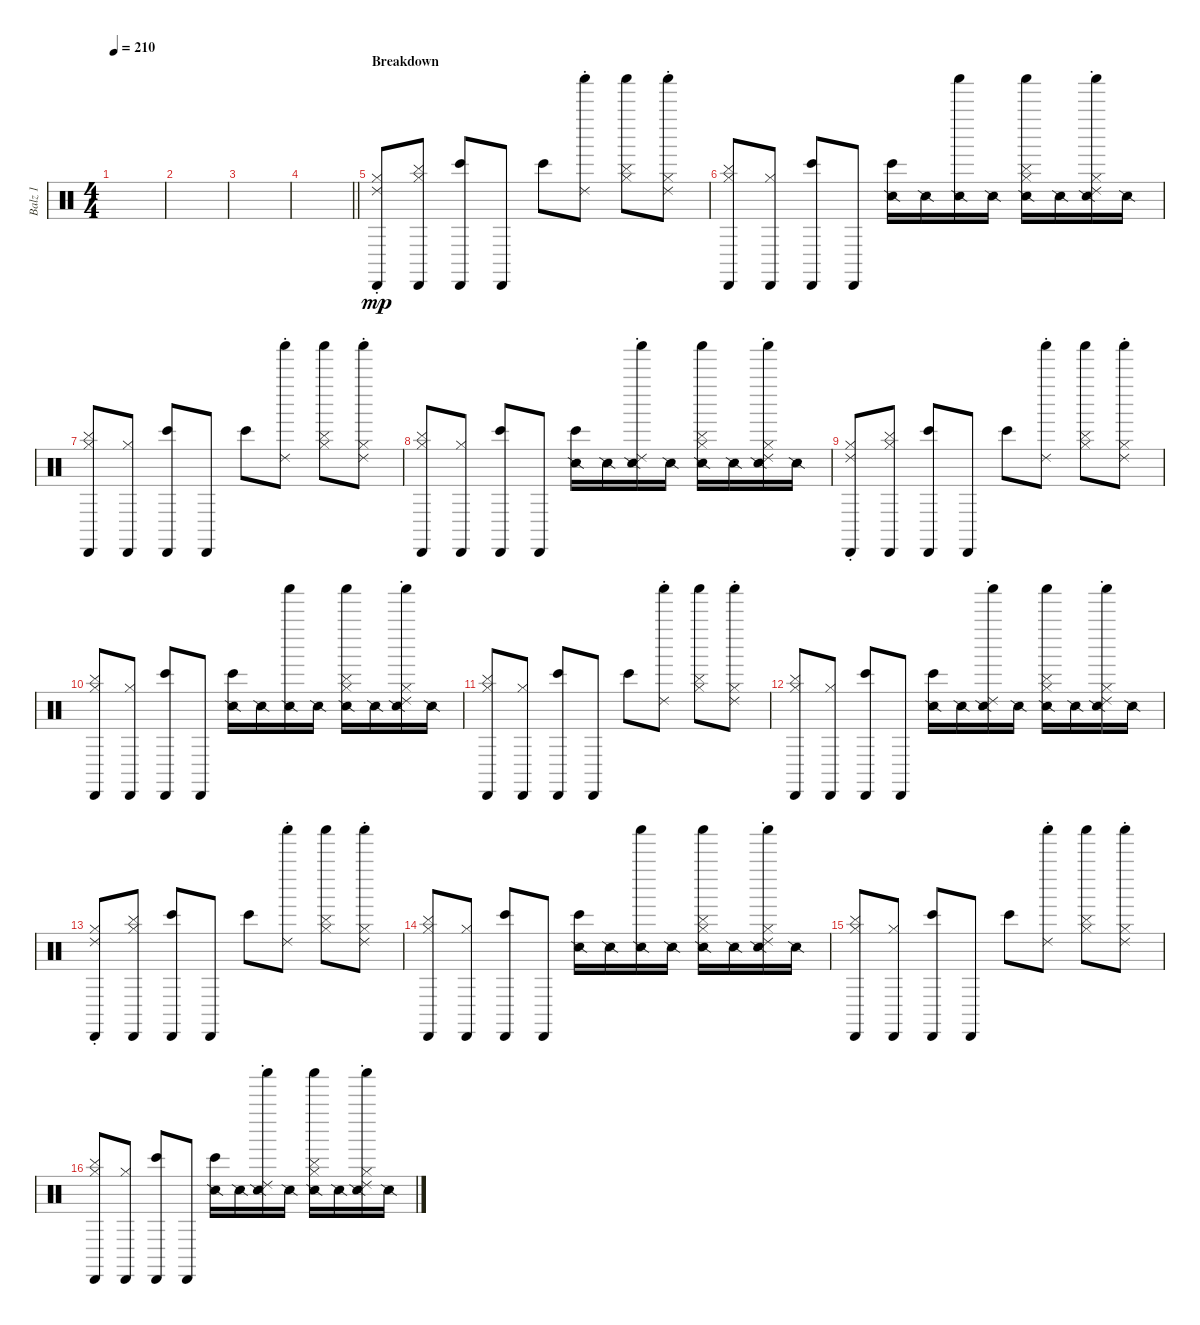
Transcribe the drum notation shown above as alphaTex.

\track ("Balz 1" "Balz 1") {instrument percussion}
\staff {score}
\articulation defaults
\ts (4 4)
\tempo 210
\clef neutral
\ks c
|
|
|
\barLineRight lightlight
|
\section ("" "Breakdown")
("Ride (choke) 2" "Hi-Hat (closed)" "Cabasa (hit)").8{dy mp} ("Cymbal (hit)" "Hi-Hat (closed)" "Cabasa (hit)").8 ("Bongo High (hit)" "Cabasa (hit)").8 "Cabasa (hit)".8 "Bongo High (hit)".8 ("Ride (choke) 2" "Shaker (hit)").8 ("Cymbal (hit)" "Shaker (hit)" "Hi-Hat (closed)").8 ("Ride (choke) 2" "Shaker (hit)" "Hi-Hat (closed)").8 |
("Cymbal (hit)" "Hi-Hat (closed)" "Cabasa (hit)").8 ("Hi-Hat (closed)" "Cabasa (hit)").8 ("Bongo High (hit)" "Cabasa (hit)").8 "Cabasa (hit)".8 ("Bongo High (hit)" "Snare (side stick) 2").16 "Snare (side stick) 2".16 ("Shaker (hit)" "Snare (side stick) 2").16 "Snare (side stick) 2".16 ("Cymbal (hit)" "Shaker (hit)" "Hi-Hat (closed)" "Snare (side stick) 2").16 "Snare (side stick) 2".16 ("Ride (choke) 2" "Shaker (hit)" "Hi-Hat (closed)" "Snare (side stick) 2").16 "Snare (side stick) 2".16 |
("Cymbal (hit)" "Hi-Hat (closed)" "Cabasa (hit)").8 ("Hi-Hat (closed)" "Cabasa (hit)").8 ("Bongo High (hit)" "Cabasa (hit)").8 "Cabasa (hit)".8 "Bongo High (hit)".8 ("Ride (choke) 2" "Shaker (hit)").8 ("Cymbal (hit)" "Shaker (hit)" "Hi-Hat (closed)").8 ("Ride (choke) 2" "Shaker (hit)" "Hi-Hat (closed)").8 |
("Cymbal (hit)" "Hi-Hat (closed)" "Cabasa (hit)").8 ("Hi-Hat (closed)" "Cabasa (hit)").8 ("Bongo High (hit)" "Cabasa (hit)").8 "Cabasa (hit)".8 ("Bongo High (hit)" "Snare (side stick) 2").16 "Snare (side stick) 2".16 ("Ride (choke) 2" "Shaker (hit)" "Snare (side stick) 2").16 "Snare (side stick) 2".16 ("Cymbal (hit)" "Shaker (hit)" "Hi-Hat (closed)" "Snare (side stick) 2").16 "Snare (side stick) 2".16 ("Ride (choke) 2" "Shaker (hit)" "Hi-Hat (closed)" "Snare (side stick) 2").16 "Snare (side stick) 2".16 |
("Ride (choke) 2" "Hi-Hat (closed)" "Cabasa (hit)").8 ("Cymbal (hit)" "Hi-Hat (closed)" "Cabasa (hit)").8 ("Bongo High (hit)" "Cabasa (hit)").8 "Cabasa (hit)".8 "Bongo High (hit)".8 ("Ride (choke) 2" "Shaker (hit)").8 ("Cymbal (hit)" "Shaker (hit)" "Hi-Hat (closed)").8 ("Ride (choke) 2" "Shaker (hit)" "Hi-Hat (closed)").8 |
("Cymbal (hit)" "Hi-Hat (closed)" "Cabasa (hit)").8 ("Hi-Hat (closed)" "Cabasa (hit)").8 ("Bongo High (hit)" "Cabasa (hit)").8 "Cabasa (hit)".8 ("Bongo High (hit)" "Snare (side stick) 2").16 "Snare (side stick) 2".16 ("Shaker (hit)" "Snare (side stick) 2").16 "Snare (side stick) 2".16 ("Cymbal (hit)" "Shaker (hit)" "Hi-Hat (closed)" "Snare (side stick) 2").16 "Snare (side stick) 2".16 ("Ride (choke) 2" "Shaker (hit)" "Hi-Hat (closed)" "Snare (side stick) 2").16 "Snare (side stick) 2".16 |
("Cymbal (hit)" "Hi-Hat (closed)" "Cabasa (hit)").8 ("Hi-Hat (closed)" "Cabasa (hit)").8 ("Bongo High (hit)" "Cabasa (hit)").8 "Cabasa (hit)".8 "Bongo High (hit)".8 ("Ride (choke) 2" "Shaker (hit)").8 ("Cymbal (hit)" "Shaker (hit)" "Hi-Hat (closed)").8 ("Ride (choke) 2" "Shaker (hit)" "Hi-Hat (closed)").8 |
("Cymbal (hit)" "Hi-Hat (closed)" "Cabasa (hit)").8 ("Hi-Hat (closed)" "Cabasa (hit)").8 ("Bongo High (hit)" "Cabasa (hit)").8 "Cabasa (hit)".8 ("Bongo High (hit)" "Snare (side stick) 2").16 "Snare (side stick) 2".16 ("Ride (choke) 2" "Shaker (hit)" "Snare (side stick) 2").16 "Snare (side stick) 2".16 ("Cymbal (hit)" "Shaker (hit)" "Hi-Hat (closed)" "Snare (side stick) 2").16 "Snare (side stick) 2".16 ("Ride (choke) 2" "Shaker (hit)" "Hi-Hat (closed)" "Snare (side stick) 2").16 "Snare (side stick) 2".16 |
("Ride (choke) 2" "Hi-Hat (closed)" "Cabasa (hit)").8 ("Cymbal (hit)" "Hi-Hat (closed)" "Cabasa (hit)").8 ("Bongo High (hit)" "Cabasa (hit)").8 "Cabasa (hit)".8 "Bongo High (hit)".8 ("Ride (choke) 2" "Shaker (hit)").8 ("Cymbal (hit)" "Shaker (hit)" "Hi-Hat (closed)").8 ("Ride (choke) 2" "Shaker (hit)" "Hi-Hat (closed)").8 |
("Cymbal (hit)" "Hi-Hat (closed)" "Cabasa (hit)").8 ("Hi-Hat (closed)" "Cabasa (hit)").8 ("Bongo High (hit)" "Cabasa (hit)").8 "Cabasa (hit)".8 ("Bongo High (hit)" "Snare (side stick) 2").16 "Snare (side stick) 2".16 ("Shaker (hit)" "Snare (side stick) 2").16 "Snare (side stick) 2".16 ("Cymbal (hit)" "Shaker (hit)" "Hi-Hat (closed)" "Snare (side stick) 2").16 "Snare (side stick) 2".16 ("Ride (choke) 2" "Shaker (hit)" "Hi-Hat (closed)" "Snare (side stick) 2").16 "Snare (side stick) 2".16 |
("Cymbal (hit)" "Hi-Hat (closed)" "Cabasa (hit)").8 ("Hi-Hat (closed)" "Cabasa (hit)").8 ("Bongo High (hit)" "Cabasa (hit)").8 "Cabasa (hit)".8 "Bongo High (hit)".8 ("Ride (choke) 2" "Shaker (hit)").8 ("Cymbal (hit)" "Shaker (hit)" "Hi-Hat (closed)").8 ("Ride (choke) 2" "Shaker (hit)" "Hi-Hat (closed)").8 |
("Cymbal (hit)" "Hi-Hat (closed)" "Cabasa (hit)").8 ("Hi-Hat (closed)" "Cabasa (hit)").8 ("Bongo High (hit)" "Cabasa (hit)").8 "Cabasa (hit)".8 ("Bongo High (hit)" "Snare (side stick) 2").16 "Snare (side stick) 2".16 ("Ride (choke) 2" "Shaker (hit)" "Snare (side stick) 2").16 "Snare (side stick) 2".16 ("Cymbal (hit)" "Shaker (hit)" "Hi-Hat (closed)" "Snare (side stick) 2").16 "Snare (side stick) 2".16 ("Ride (choke) 2" "Shaker (hit)" "Hi-Hat (closed)" "Snare (side stick) 2").16 "Snare (side stick) 2".16
